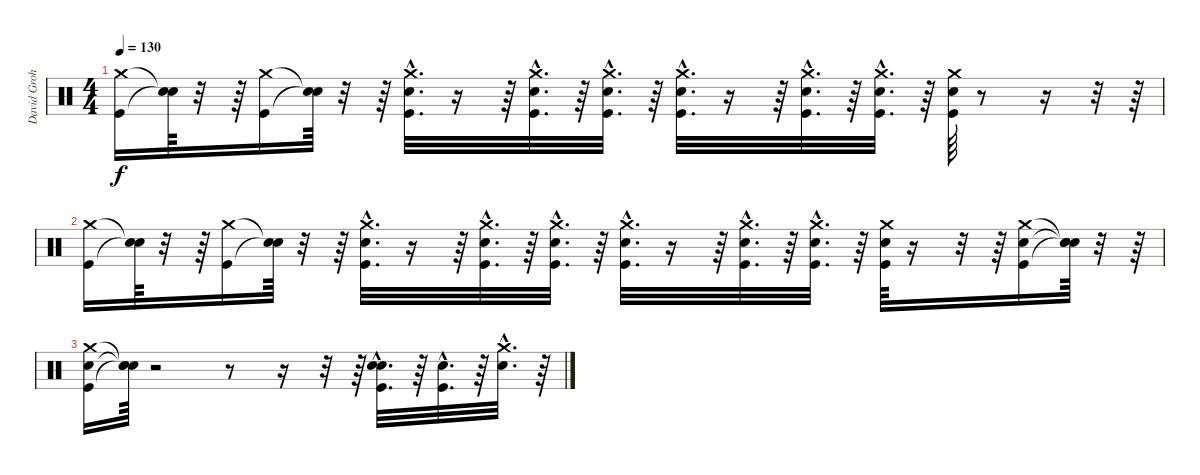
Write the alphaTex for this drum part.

\track ("David Grohl -Drums-" "David Groh") {instrument percussion}
\staff {score}
\articulation defaults
\ts (4 4)
\tempo 130
\clef neutral
\ks c
("Crash medium (hit)" "Kick (hit)").16{dy f} ("Snare (hit)"{t} "Snare (hit)"{t}).64 r.32 r.64 ("Crash medium (hit)" "Kick (hit)").16 ("Snare (hit)"{t} "Snare (hit)"{t}).64 r.32 r.64 ("Crash medium (hit)"{hac} "Kick (hit)"{hac} "Snare (hit) 2"{hac}).32{d} r.16 r.64 ("Crash medium (hit)"{hac} "Kick (hit)"{hac} "Snare (hit) 2"{hac}).32{d} r.64 ("Crash medium (hit)"{hac} "Kick (hit)"{hac} "Snare (hit) 2"{hac}).32{d} r.64 ("Crash medium (hit)"{hac} "Kick (hit)"{hac} "Snare (hit) 2"{hac}).32{d} r.16 r.64 ("Crash medium (hit)"{hac} "Kick (hit)"{hac} "Snare (hit) 2"{hac}).32{d} r.64 ("Crash medium (hit)"{hac} "Kick (hit)"{hac} "Snare (hit) 2"{hac}).32{d} r.64 ("Crash medium (hit)" "Kick (hit)" "Snare (hit) 2").64 r.8 r.16 r.32 r.64 |
("Crash medium (hit)" "Kick (hit)").16 ("Snare (hit)"{t} "Snare (hit)"{t}).64 r.32 r.64 ("Crash medium (hit)" "Kick (hit)").16 ("Snare (hit)"{t} "Snare (hit)"{t}).64 r.32 r.64 ("Crash medium (hit)"{hac} "Kick (hit)"{hac} "Snare (hit) 2"{hac}).32{d} r.16 r.64 ("Crash medium (hit)"{hac} "Kick (hit)"{hac} "Snare (hit) 2"{hac}).32{d} r.64 ("Crash medium (hit)"{hac} "Kick (hit)"{hac} "Snare (hit) 2"{hac}).32{d} r.64 ("Crash medium (hit)"{hac} "Kick (hit)"{hac} "Snare (hit) 2"{hac}).32{d} r.16 r.64 ("Crash medium (hit)"{hac} "Kick (hit)"{hac} "Snare (hit) 2"{hac}).32{d} r.64 ("Crash medium (hit)"{hac} "Kick (hit)"{hac} "Snare (hit) 2"{hac}).32{d} r.64 ("Crash medium (hit)" "Kick (hit)" "Snare (hit) 2").64 r.16 r.32 r.64 ("Crash medium (hit)" "Snare (hit) 2" "Kick (hit)").16 ("Snare (hit)"{t} "Snare (hit)"{t} "Snare (hit)"{t}).64 r.32 r.64 |
("Crash medium (hit)" "Snare (hit) 2" "Kick (hit)").16 ("Snare (hit)"{t} "Snare (hit)"{t} "Snare (hit)"{t}).64 r.2 r.8 r.16 r.32 r.64 ("Kick (hit)"{hac} "Electric Snare (hit)"{hac} "Snare (hit) 2"{hac}).32{d} r.64 ("Kick (hit)"{hac} "Snare (hit) 2"{hac}).32{d} r.64 ("Snare (hit) 2"{hac} "Crash medium (hit)"{hac}).32{d} r.64
